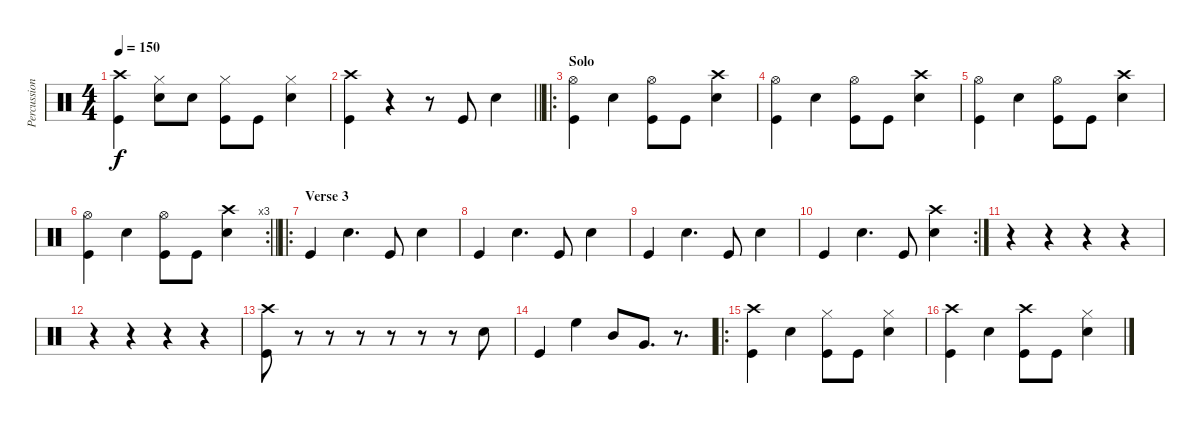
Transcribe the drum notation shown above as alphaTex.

\track ("Percussion" "Percussion") {instrument percussion}
\staff {score}
\articulation defaults
\ts (4 4)
\tempo 150
\clef neutral
\ks c
("Kick (hit)" "Crash high (hit)").4{dy f} ("Snare (hit) 2" "Hi-Hat (closed)").8 "Snare (hit) 2".8 ("Kick (hit)" "Hi-Hat (closed)").8 "Kick (hit)".8 ("Snare (hit) 2" "Hi-Hat (closed)").4 |
\barLineRight lightlight
("Kick (hit)" "Crash high (hit)").4 r.4 r.8 "Kick (hit)".8 "Snare (hit) 2".4 |
\ro
\section ("" "Solo")
("Kick (hit)" "Hi-Hat (open)").4 "Snare (hit) 2".4 ("Kick (hit)" "Hi-Hat (open)").8 "Kick (hit)".8 ("Snare (hit) 2" "Crash high (hit)").4 |
("Kick (hit)" "Hi-Hat (open)").4 "Snare (hit) 2".4 ("Kick (hit)" "Hi-Hat (open)").8 "Kick (hit)".8 ("Snare (hit) 2" "Crash high (hit)").4 |
("Kick (hit)" "Hi-Hat (open)").4 "Snare (hit) 2".4 ("Kick (hit)" "Hi-Hat (open)").8 "Kick (hit)".8 ("Snare (hit) 2" "Crash high (hit)").4 |
\rc 3
\barLineRight lightlight
("Kick (hit)" "Hi-Hat (open)").4 "Snare (hit) 2".4 ("Kick (hit)" "Hi-Hat (open)").8 "Kick (hit)".8 ("Snare (hit) 2" "Crash high (hit)").4 |
\ro
\section ("" "Verse 3")
"Kick (hit)".4 "Snare (hit) 2".4{d} "Kick (hit)".8 "Snare (hit) 2".4 |
"Kick (hit)".4 "Snare (hit) 2".4{d} "Kick (hit)".8 "Snare (hit) 2".4 |
"Kick (hit)".4 "Snare (hit) 2".4{d} "Kick (hit)".8 "Snare (hit) 2".4 |
\rc 2 "Kick (hit)".4 "Snare (hit) 2".4{d} "Kick (hit)".8
("Crash high (hit)" "Snare (hit) 2").4 |
r.4 r.4 r.4 r.4 |
r.4 r.4 r.4 r.4 |
("Kick (hit)" "Crash high (hit)").8 r.8 r.8 r.8 r.8 r.8 r.8 "Snare (hit) 2".8 |
"Kick (hit)".4 "High Floor Tom (hit)".4 "Mid Tom (hit)".8 "Very Low Tom (hit)".8{d} r.8{d} |
\ro
("Kick (hit)" "Crash high (hit)").4 "Snare (hit) 2".4 ("Kick (hit)" "Hi-Hat (closed)").8 "Kick (hit)".8 ("Snare (hit) 2" "Hi-Hat (closed)").4 |
("Kick (hit)" "Crash high (hit)").4 "Snare (hit) 2".4 ("Kick (hit)" "Crash high (hit)").8 "Kick (hit)".8 ("Snare (hit) 2" "Hi-Hat (closed)").4
